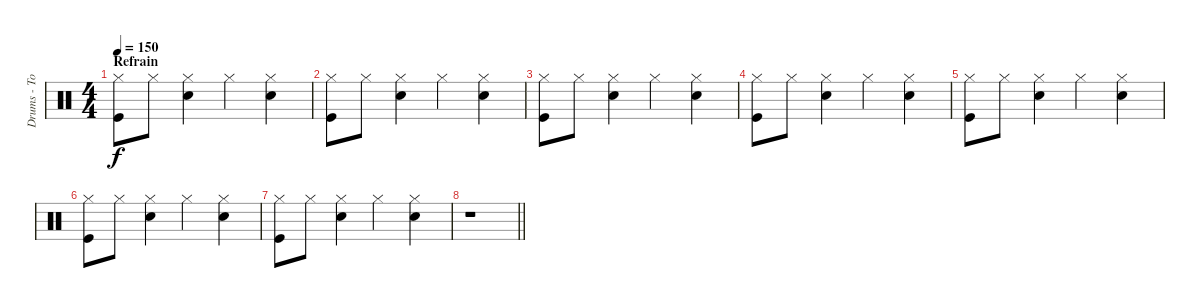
\track ("Drums - Tobi Häuser" "Drums - To") {instrument percussion}
\staff {score}
\articulation defaults
\ts (4 4)
\section ("" "Refrain")
\tempo 150
\clef neutral
\ks c
("Hi-Hat (closed)" "Kick (hit)").8{dy f} "Hi-Hat (closed)".8 ("Hi-Hat (closed)" "Snare (hit) 2").4 "Hi-Hat (closed)".4 ("Hi-Hat (closed)" "Snare (hit) 2").4 |
("Hi-Hat (closed)" "Kick (hit)").8 "Hi-Hat (closed)".8 ("Hi-Hat (closed)" "Snare (hit) 2").4 "Hi-Hat (closed)".4 ("Hi-Hat (closed)" "Snare (hit) 2").4 |
("Hi-Hat (closed)" "Kick (hit)").8 "Hi-Hat (closed)".8 ("Hi-Hat (closed)" "Snare (hit) 2").4 "Hi-Hat (closed)".4 ("Hi-Hat (closed)" "Snare (hit) 2").4 |
("Hi-Hat (closed)" "Kick (hit)").8 "Hi-Hat (closed)".8 ("Hi-Hat (closed)" "Snare (hit) 2").4 "Hi-Hat (closed)".4 ("Hi-Hat (closed)" "Snare (hit) 2").4 |
("Hi-Hat (closed)" "Kick (hit)").8 "Hi-Hat (closed)".8 ("Hi-Hat (closed)" "Snare (hit) 2").4 "Hi-Hat (closed)".4 ("Hi-Hat (closed)" "Snare (hit) 2").4 |
("Hi-Hat (closed)" "Kick (hit)").8 "Hi-Hat (closed)".8 ("Hi-Hat (closed)" "Snare (hit) 2").4 "Hi-Hat (closed)".4 ("Hi-Hat (closed)" "Snare (hit) 2").4 |
("Hi-Hat (closed)" "Kick (hit)").8 "Hi-Hat (closed)".8 ("Hi-Hat (closed)" "Snare (hit) 2").4 "Hi-Hat (closed)".4 ("Hi-Hat (closed)" "Snare (hit) 2").4 |
\barLineRight lightlight
r.1
